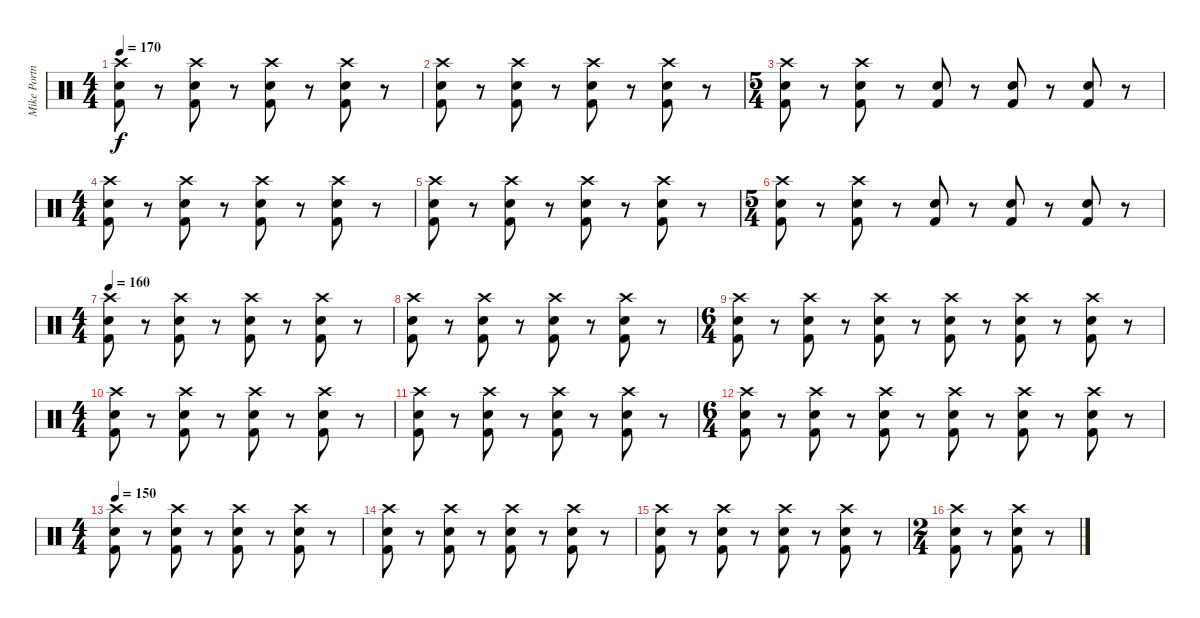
\track ("Mike Portnoy" "Mike Portn") {instrument percussion}
\staff {score}
\articulation defaults
\ts (4 4)
\tempo 170
\clef neutral
\ks c
("Crash high (hit)" "Electric Snare (hit)" "Kick (hit) 2").8{dy f} r.8 ("Crash high (hit)" "Electric Snare (hit)" "Kick (hit) 2").8 r.8 ("Crash high (hit)" "Electric Snare (hit)" "Kick (hit) 2").8 r.8 ("Crash high (hit)" "Electric Snare (hit)" "Kick (hit) 2").8 r.8 |
("Crash high (hit)" "Electric Snare (hit)" "Kick (hit) 2").8 r.8 ("Crash high (hit)" "Electric Snare (hit)" "Kick (hit) 2").8 r.8 ("Crash high (hit)" "Electric Snare (hit)" "Kick (hit) 2").8 r.8 ("Crash high (hit)" "Electric Snare (hit)" "Kick (hit) 2").8 r.8 |
\ts (5 4)
("Crash high (hit)" "Electric Snare (hit)" "Kick (hit) 2").8 r.8 ("Crash high (hit)" "Electric Snare (hit)" "Kick (hit) 2").8 r.8 ("Electric Snare (hit)" "Kick (hit) 2").8 r.8 ("Electric Snare (hit)" "Kick (hit) 2").8 r.8 ("Electric Snare (hit)" "Kick (hit) 2").8 r.8 |
\ts (4 4)
("Crash high (hit)" "Electric Snare (hit)" "Kick (hit) 2").8 r.8 ("Crash high (hit)" "Electric Snare (hit)" "Kick (hit) 2").8 r.8 ("Crash high (hit)" "Electric Snare (hit)" "Kick (hit) 2").8 r.8 ("Crash high (hit)" "Electric Snare (hit)" "Kick (hit) 2").8 r.8 |
("Crash high (hit)" "Electric Snare (hit)" "Kick (hit) 2").8 r.8 ("Crash high (hit)" "Electric Snare (hit)" "Kick (hit) 2").8 r.8 ("Crash high (hit)" "Electric Snare (hit)" "Kick (hit) 2").8 r.8 ("Crash high (hit)" "Electric Snare (hit)" "Kick (hit) 2").8 r.8 |
\ts (5 4)
("Crash high (hit)" "Electric Snare (hit)" "Kick (hit) 2").8 r.8 ("Crash high (hit)" "Electric Snare (hit)" "Kick (hit) 2").8 r.8 ("Electric Snare (hit)" "Kick (hit) 2").8 r.8 ("Electric Snare (hit)" "Kick (hit) 2").8 r.8 ("Electric Snare (hit)" "Kick (hit) 2").8 r.8 |
\ts (4 4)
\tempo 160
("Crash high (hit)" "Electric Snare (hit)" "Kick (hit) 2").8 r.8 ("Crash high (hit)" "Electric Snare (hit)" "Kick (hit) 2").8 r.8 ("Crash high (hit)" "Electric Snare (hit)" "Kick (hit) 2").8 r.8 ("Crash high (hit)" "Electric Snare (hit)" "Kick (hit) 2").8 r.8 |
("Crash high (hit)" "Electric Snare (hit)" "Kick (hit) 2").8 r.8 ("Crash high (hit)" "Electric Snare (hit)" "Kick (hit) 2").8 r.8 ("Crash high (hit)" "Electric Snare (hit)" "Kick (hit) 2").8 r.8 ("Crash high (hit)" "Electric Snare (hit)" "Kick (hit) 2").8 r.8 |
\ts (6 4)
("Crash high (hit)" "Electric Snare (hit)" "Kick (hit) 2").8 r.8 ("Crash high (hit)" "Electric Snare (hit)" "Kick (hit) 2").8 r.8 ("Crash high (hit)" "Electric Snare (hit)" "Kick (hit) 2").8 r.8 ("Crash high (hit)" "Electric Snare (hit)" "Kick (hit) 2").8 r.8 ("Crash high (hit)" "Electric Snare (hit)" "Kick (hit) 2").8 r.8 ("Crash high (hit)" "Electric Snare (hit)" "Kick (hit) 2").8 r.8 |
\ts (4 4)
("Crash high (hit)" "Electric Snare (hit)" "Kick (hit) 2").8 r.8 ("Crash high (hit)" "Electric Snare (hit)" "Kick (hit) 2").8 r.8 ("Crash high (hit)" "Electric Snare (hit)" "Kick (hit) 2").8 r.8 ("Crash high (hit)" "Electric Snare (hit)" "Kick (hit) 2").8 r.8 |
("Crash high (hit)" "Electric Snare (hit)" "Kick (hit) 2").8 r.8 ("Crash high (hit)" "Electric Snare (hit)" "Kick (hit) 2").8 r.8 ("Crash high (hit)" "Electric Snare (hit)" "Kick (hit) 2").8 r.8 ("Crash high (hit)" "Electric Snare (hit)" "Kick (hit) 2").8 r.8 |
\ts (6 4)
("Crash high (hit)" "Electric Snare (hit)" "Kick (hit) 2").8 r.8 ("Crash high (hit)" "Electric Snare (hit)" "Kick (hit) 2").8 r.8 ("Crash high (hit)" "Electric Snare (hit)" "Kick (hit) 2").8 r.8 ("Crash high (hit)" "Electric Snare (hit)" "Kick (hit) 2").8 r.8 ("Crash high (hit)" "Electric Snare (hit)" "Kick (hit) 2").8 r.8 ("Crash high (hit)" "Electric Snare (hit)" "Kick (hit) 2").8 r.8 |
\ts (4 4)
\tempo 150
("Crash high (hit)" "Electric Snare (hit)" "Kick (hit) 2").8 r.8 ("Crash high (hit)" "Electric Snare (hit)" "Kick (hit) 2").8 r.8 ("Crash high (hit)" "Electric Snare (hit)" "Kick (hit) 2").8 r.8 ("Crash high (hit)" "Electric Snare (hit)" "Kick (hit) 2").8 r.8 |
("Crash high (hit)" "Electric Snare (hit)" "Kick (hit) 2").8 r.8 ("Crash high (hit)" "Electric Snare (hit)" "Kick (hit) 2").8 r.8 ("Crash high (hit)" "Electric Snare (hit)" "Kick (hit) 2").8 r.8 ("Crash high (hit)" "Electric Snare (hit)" "Kick (hit) 2").8 r.8 |
("Crash high (hit)" "Electric Snare (hit)" "Kick (hit) 2").8 r.8 ("Crash high (hit)" "Electric Snare (hit)" "Kick (hit) 2").8 r.8 ("Crash high (hit)" "Electric Snare (hit)" "Kick (hit) 2").8 r.8 ("Crash high (hit)" "Electric Snare (hit)" "Kick (hit) 2").8 r.8 |
\ts (2 4)
("Crash high (hit)" "Electric Snare (hit)" "Kick (hit) 2").8 r.8 ("Crash high (hit)" "Electric Snare (hit)" "Kick (hit) 2").8 r.8
